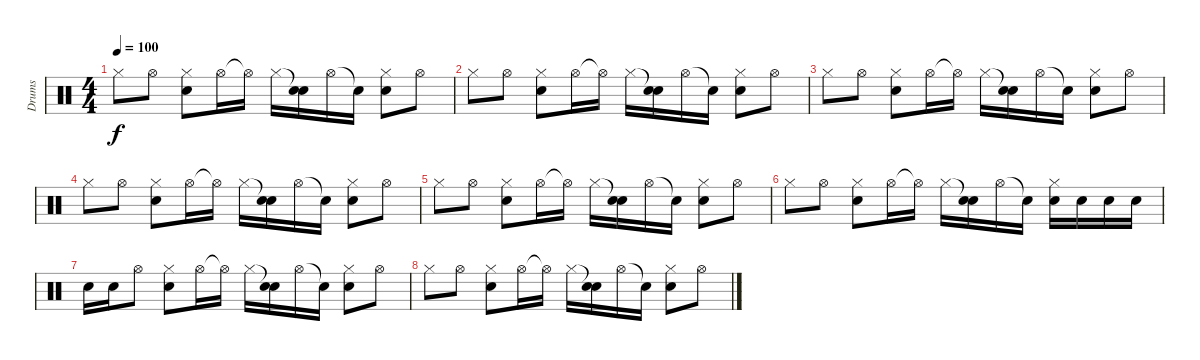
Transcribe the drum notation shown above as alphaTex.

\track ("Drums" "Drums") {instrument percussion}
\staff {score}
\articulation defaults
\ts (4 4)
\tempo 100
\clef neutral
\ks c "Hi-Hat (closed)".8{dy f} "Hi-Hat (open)".8
("Hi-Hat (closed)" "Electric Snare (hit)").8 "Hi-Hat (open)".16 "Hi-Hat (open)"{t}.16 "Hi-Hat (closed)".16 ("Snare (hit)"{t} "Electric Snare (hit)").16 "Hi-Hat (open)".16 "Snare (hit)"{t}.16 ("Hi-Hat (closed)" "Electric Snare (hit)").8 "Hi-Hat (open)".8 |
"Hi-Hat (closed)".8 "Hi-Hat (open)".8 ("Hi-Hat (closed)" "Electric Snare (hit)").8 "Hi-Hat (open)".16 "Hi-Hat (open)"{t}.16 "Hi-Hat (closed)".16 ("Snare (hit)"{t} "Electric Snare (hit)").16 "Hi-Hat (open)".16 "Snare (hit)"{t}.16 ("Hi-Hat (closed)" "Electric Snare (hit)").8 "Hi-Hat (open)".8 |
"Hi-Hat (closed)".8 "Hi-Hat (open)".8 ("Hi-Hat (closed)" "Electric Snare (hit)").8 "Hi-Hat (open)".16 "Hi-Hat (open)"{t}.16 "Hi-Hat (closed)".16 ("Snare (hit)"{t} "Electric Snare (hit)").16 "Hi-Hat (open)".16 "Snare (hit)"{t}.16 ("Hi-Hat (closed)" "Electric Snare (hit)").8 "Hi-Hat (open)".8 |
"Hi-Hat (closed)".8 "Hi-Hat (open)".8 ("Hi-Hat (closed)" "Electric Snare (hit)").8 "Hi-Hat (open)".16 "Hi-Hat (open)"{t}.16 "Hi-Hat (closed)".16 ("Snare (hit)"{t} "Electric Snare (hit)").16 "Hi-Hat (open)".16 "Snare (hit)"{t}.16 ("Hi-Hat (closed)" "Electric Snare (hit)").8 "Hi-Hat (open)".8 |
"Hi-Hat (closed)".8 "Hi-Hat (open)".8 ("Hi-Hat (closed)" "Electric Snare (hit)").8 "Hi-Hat (open)".16 "Hi-Hat (open)"{t}.16 "Hi-Hat (closed)".16 ("Snare (hit)"{t} "Electric Snare (hit)").16 "Hi-Hat (open)".16 "Snare (hit)"{t}.16 ("Hi-Hat (closed)" "Electric Snare (hit)").8 "Hi-Hat (open)".8 |
"Hi-Hat (closed)".8 "Hi-Hat (open)".8 ("Hi-Hat (closed)" "Electric Snare (hit)").8 "Hi-Hat (open)".16 "Hi-Hat (open)"{t}.16 "Hi-Hat (closed)".16 ("Snare (hit)"{t} "Electric Snare (hit)").16 "Hi-Hat (open)".16 "Snare (hit)"{t}.16 ("Hi-Hat (closed)" "Electric Snare (hit)").16 "Electric Snare (hit)".16 "Electric Snare (hit)".16 "Electric Snare (hit)".16 |
"Electric Snare (hit)".16 "Electric Snare (hit)".16 "Hi-Hat (open)".8 ("Hi-Hat (closed)" "Electric Snare (hit)").8 "Hi-Hat (open)".16 "Hi-Hat (open)"{t}.16 "Hi-Hat (closed)".16 ("Snare (hit)"{t} "Electric Snare (hit)").16 "Hi-Hat (open)".16 "Snare (hit)"{t}.16 ("Hi-Hat (closed)" "Electric Snare (hit)").8 "Hi-Hat (open)".8 |
"Hi-Hat (closed)".8 "Hi-Hat (open)".8 ("Hi-Hat (closed)" "Electric Snare (hit)").8 "Hi-Hat (open)".16 "Hi-Hat (open)"{t}.16 "Hi-Hat (closed)".16 ("Snare (hit)"{t} "Electric Snare (hit)").16 "Hi-Hat (open)".16 "Snare (hit)"{t}.16 ("Hi-Hat (closed)" "Electric Snare (hit)").8 "Hi-Hat (open)".8
